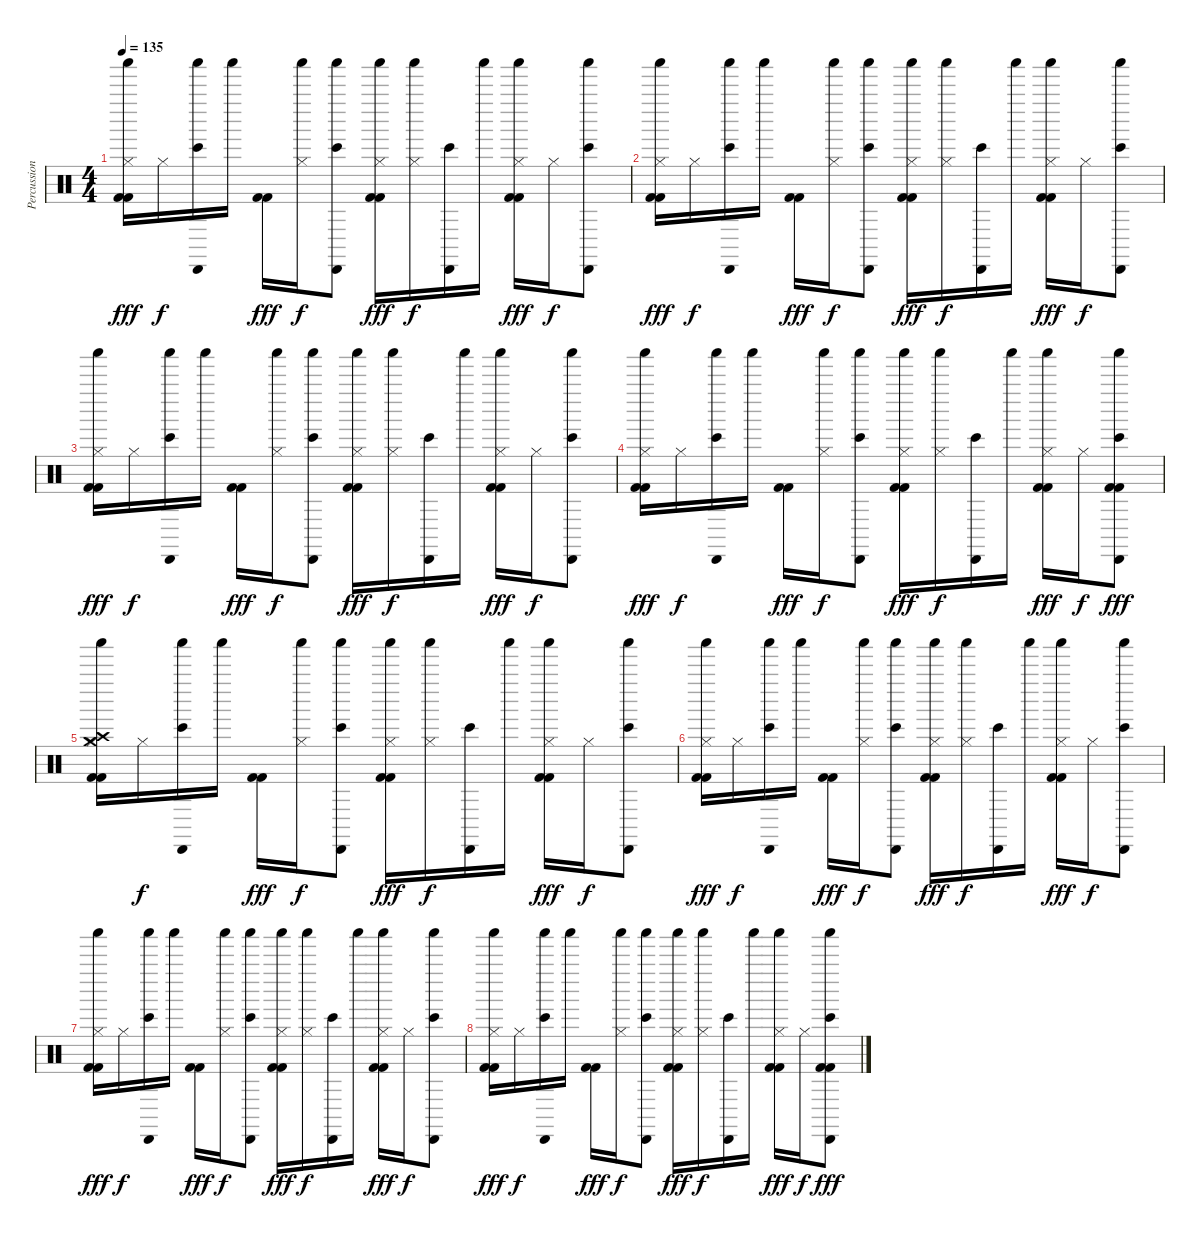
\track ("Percussion" "Percussion") {instrument percussion}
\staff {score}
\articulation defaults
\ts (4 4)
\tempo 135
\clef neutral
\ks c
("Hi-Hat (closed)" "Kick (hit) 2" "Kick (hit) 2" "Shaker (hit)").16{dy fff} "Hi-Hat (closed)".16{dy f} ("Cabasa (hit)" "Bongo High (hit)" "Shaker (hit)").16 "Shaker (hit)".16 ("Kick (hit) 2" "Kick (hit) 2").16{dy fff} ("Hi-Hat (closed)" "Shaker (hit)").16{dy f} ("Cabasa (hit)" "Bongo High (hit)" "Shaker (hit)").8 ("Hi-Hat (closed)" "Kick (hit) 2" "Kick (hit) 2" "Shaker (hit)").16{dy fff} ("Hi-Hat (closed)" "Shaker (hit)").16{dy f} ("Cabasa (hit)" "Bongo High (hit)").16 "Shaker (hit)".16 ("Hi-Hat (closed)" "Kick (hit) 2" "Kick (hit) 2" "Shaker (hit)").16{dy fff} "Hi-Hat (closed)".16{dy f} ("Cabasa (hit)" "Bongo High (hit)" "Shaker (hit)").8 |
("Hi-Hat (closed)" "Kick (hit) 2" "Kick (hit) 2" "Shaker (hit)").16{dy fff} "Hi-Hat (closed)".16{dy f} ("Cabasa (hit)" "Bongo High (hit)" "Shaker (hit)").16 "Shaker (hit)".16 ("Kick (hit) 2" "Kick (hit) 2").16{dy fff} ("Hi-Hat (closed)" "Shaker (hit)").16{dy f} ("Cabasa (hit)" "Bongo High (hit)" "Shaker (hit)").8 ("Hi-Hat (closed)" "Kick (hit) 2" "Kick (hit) 2" "Shaker (hit)").16{dy fff} ("Hi-Hat (closed)" "Shaker (hit)").16{dy f} ("Cabasa (hit)" "Bongo High (hit)").16 "Shaker (hit)".16 ("Hi-Hat (closed)" "Kick (hit) 2" "Kick (hit) 2" "Shaker (hit)").16{dy fff} "Hi-Hat (closed)".16{dy f} ("Cabasa (hit)" "Bongo High (hit)" "Shaker (hit)").8 |
("Hi-Hat (closed)" "Kick (hit) 2" "Kick (hit) 2" "Shaker (hit)").16{dy fff} "Hi-Hat (closed)".16{dy f} ("Cabasa (hit)" "Bongo High (hit)" "Shaker (hit)").16 "Shaker (hit)".16 ("Kick (hit) 2" "Kick (hit) 2").16{dy fff} ("Hi-Hat (closed)" "Shaker (hit)").16{dy f} ("Cabasa (hit)" "Bongo High (hit)" "Shaker (hit)").8 ("Hi-Hat (closed)" "Kick (hit) 2" "Kick (hit) 2" "Shaker (hit)").16{dy fff} ("Hi-Hat (closed)" "Shaker (hit)").16{dy f} ("Cabasa (hit)" "Bongo High (hit)").16 "Shaker (hit)".16 ("Hi-Hat (closed)" "Kick (hit) 2" "Kick (hit) 2" "Shaker (hit)").16{dy fff} "Hi-Hat (closed)".16{dy f} ("Cabasa (hit)" "Bongo High (hit)" "Shaker (hit)").8 |
("Hi-Hat (closed)" "Kick (hit) 2" "Kick (hit) 2" "Shaker (hit)").16{dy fff} "Hi-Hat (closed)".16{dy f} ("Cabasa (hit)" "Bongo High (hit)" "Shaker (hit)").16 "Shaker (hit)".16 ("Kick (hit) 2" "Kick (hit) 2").16{dy fff} ("Hi-Hat (closed)" "Shaker (hit)").16{dy f} ("Cabasa (hit)" "Bongo High (hit)" "Shaker (hit)").8 ("Hi-Hat (closed)" "Kick (hit) 2" "Kick (hit) 2" "Shaker (hit)").16{dy fff} ("Hi-Hat (closed)" "Shaker (hit)").16{dy f} ("Cabasa (hit)" "Bongo High (hit)").16 "Shaker (hit)".16 ("Hi-Hat (closed)" "Kick (hit) 2" "Kick (hit) 2" "Shaker (hit)").16{dy fff} "Hi-Hat (closed)".16{dy f} ("Cabasa (hit)" "Bongo High (hit)" "Kick (hit) 2" "Kick (hit) 2" "Shaker (hit)").8{dy fff} |
("Crash medium (hit)" "Hi-Hat (closed)" "Crash high (hit)" "Kick (hit) 2" "Kick (hit) 2" "Shaker (hit)").16 "Hi-Hat (closed)".16{dy f} ("Cabasa (hit)" "Bongo High (hit)" "Shaker (hit)").16 "Shaker (hit)".16 ("Kick (hit) 2" "Kick (hit) 2").16{dy fff} ("Hi-Hat (closed)" "Shaker (hit)").16{dy f} ("Cabasa (hit)" "Bongo High (hit)" "Shaker (hit)").8 ("Hi-Hat (closed)" "Kick (hit) 2" "Kick (hit) 2" "Shaker (hit)").16{dy fff} ("Hi-Hat (closed)" "Shaker (hit)").16{dy f} ("Cabasa (hit)" "Bongo High (hit)").16 "Shaker (hit)".16 ("Hi-Hat (closed)" "Kick (hit) 2" "Kick (hit) 2" "Shaker (hit)").16{dy fff} "Hi-Hat (closed)".16{dy f} ("Cabasa (hit)" "Bongo High (hit)" "Shaker (hit)").8 |
("Hi-Hat (closed)" "Kick (hit) 2" "Kick (hit) 2" "Shaker (hit)").16{dy fff} "Hi-Hat (closed)".16{dy f} ("Cabasa (hit)" "Bongo High (hit)" "Shaker (hit)").16 "Shaker (hit)".16 ("Kick (hit) 2" "Kick (hit) 2").16{dy fff} ("Hi-Hat (closed)" "Shaker (hit)").16{dy f} ("Cabasa (hit)" "Bongo High (hit)" "Shaker (hit)").8 ("Hi-Hat (closed)" "Kick (hit) 2" "Kick (hit) 2" "Shaker (hit)").16{dy fff} ("Hi-Hat (closed)" "Shaker (hit)").16{dy f} ("Cabasa (hit)" "Bongo High (hit)").16 "Shaker (hit)".16 ("Hi-Hat (closed)" "Kick (hit) 2" "Kick (hit) 2" "Shaker (hit)").16{dy fff} "Hi-Hat (closed)".16{dy f} ("Cabasa (hit)" "Bongo High (hit)" "Shaker (hit)").8 |
("Hi-Hat (closed)" "Kick (hit) 2" "Kick (hit) 2" "Shaker (hit)").16{dy fff} "Hi-Hat (closed)".16{dy f} ("Cabasa (hit)" "Bongo High (hit)" "Shaker (hit)").16 "Shaker (hit)".16 ("Kick (hit) 2" "Kick (hit) 2").16{dy fff} ("Hi-Hat (closed)" "Shaker (hit)").16{dy f} ("Cabasa (hit)" "Bongo High (hit)" "Shaker (hit)").8 ("Hi-Hat (closed)" "Kick (hit) 2" "Kick (hit) 2" "Shaker (hit)").16{dy fff} ("Hi-Hat (closed)" "Shaker (hit)").16{dy f} ("Cabasa (hit)" "Bongo High (hit)").16 "Shaker (hit)".16 ("Hi-Hat (closed)" "Kick (hit) 2" "Kick (hit) 2" "Shaker (hit)").16{dy fff} "Hi-Hat (closed)".16{dy f} ("Cabasa (hit)" "Bongo High (hit)" "Shaker (hit)").8 |
("Hi-Hat (closed)" "Kick (hit) 2" "Kick (hit) 2" "Shaker (hit)").16{dy fff} "Hi-Hat (closed)".16{dy f} ("Cabasa (hit)" "Bongo High (hit)" "Shaker (hit)").16 "Shaker (hit)".16 ("Kick (hit) 2" "Kick (hit) 2").16{dy fff} ("Hi-Hat (closed)" "Shaker (hit)").16{dy f} ("Cabasa (hit)" "Bongo High (hit)" "Shaker (hit)").8 ("Hi-Hat (closed)" "Kick (hit) 2" "Kick (hit) 2" "Shaker (hit)").16{dy fff} ("Hi-Hat (closed)" "Shaker (hit)").16{dy f} ("Cabasa (hit)" "Bongo High (hit)").16 "Shaker (hit)".16 ("Hi-Hat (closed)" "Kick (hit) 2" "Kick (hit) 2" "Shaker (hit)").16{dy fff} "Hi-Hat (closed)".16{dy f} ("Cabasa (hit)" "Bongo High (hit)" "Kick (hit) 2" "Kick (hit) 2" "Shaker (hit)").8{dy fff}
